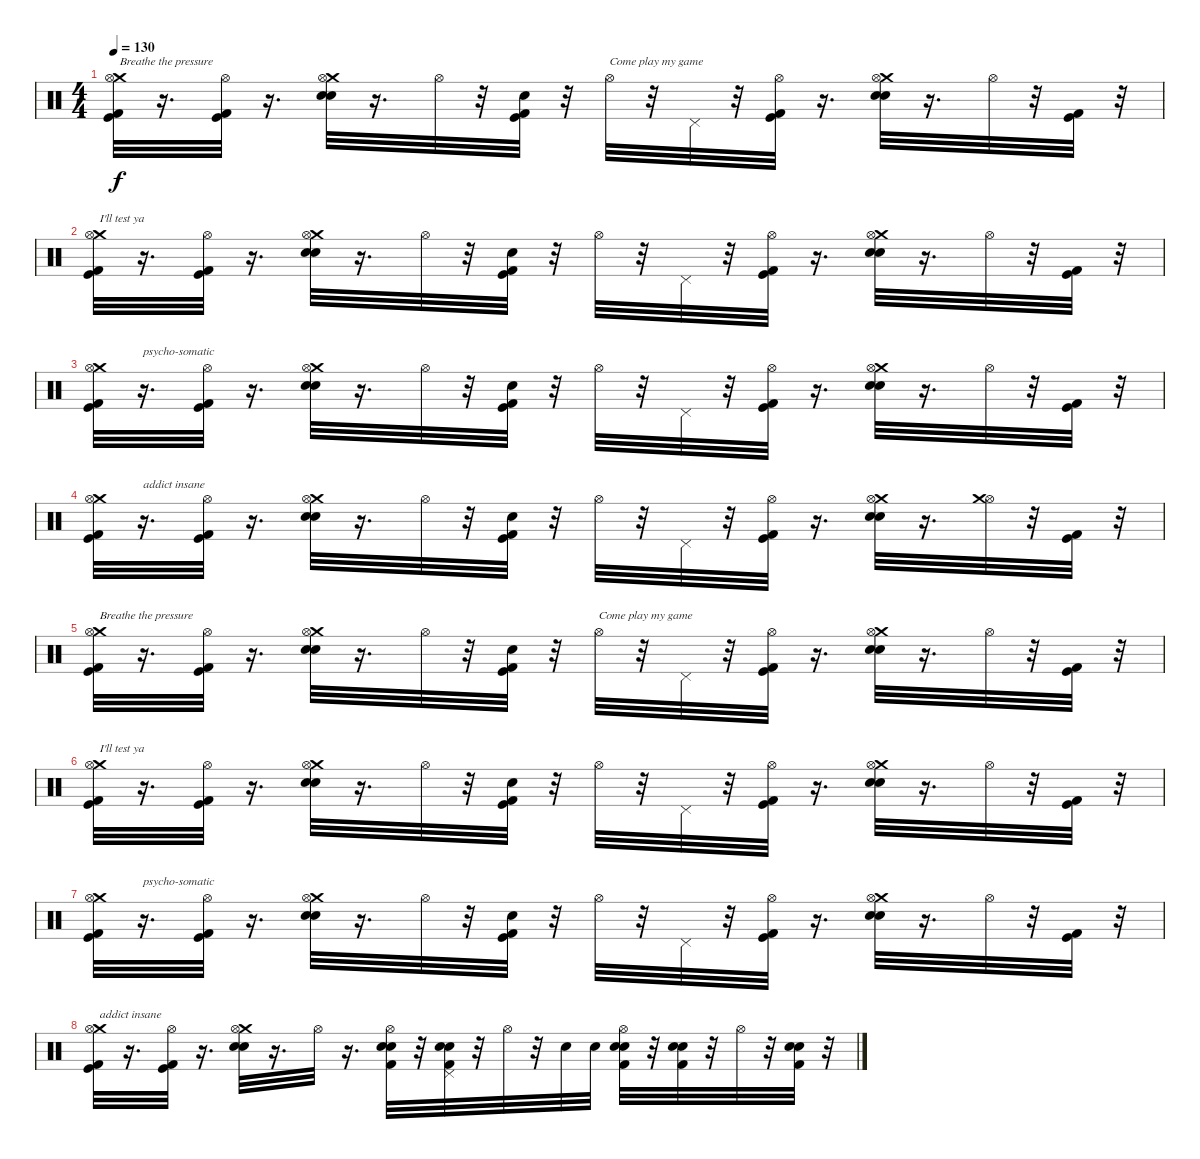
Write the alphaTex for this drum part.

\track "" {instrument percussion}
\staff {score}
\articulation defaults
\ts (4 4)
\tempo 130
\clef neutral
\ks c
("Kick (hit) 2" "Kick (hit)" "Crash medium (hit)" "Hi-Hat (open)").32{txt "Breathe the pressure" dy f} r.16{d} ("Kick (hit) 2" "Kick (hit)" "Hi-Hat (open)").32 r.16{d} ("Snare (hit) 2" "Electric Snare (hit)" "Crash medium (hit)" "Hi-Hat (open)").32 r.16{d} "Hi-Hat (open)".32 r.32 ("Kick (hit) 2" "Kick (hit)" "Electric Snare (hit)").32 r.32 "Hi-Hat (open)".32{txt "Come play my game"} r.32 "Pedal Hi-Hat (hit)".32 r.32 ("Kick (hit) 2" "Kick (hit)" "Hi-Hat (open)").32 r.16{d} ("Snare (hit) 2" "Electric Snare (hit)" "Crash medium (hit)" "Hi-Hat (open)").32 r.16{d} "Hi-Hat (open)".32 r.32 ("Kick (hit) 2" "Kick (hit)").32 r.32 |
("Kick (hit) 2" "Kick (hit)" "Crash medium (hit)" "Hi-Hat (open)").32{txt "I'll test ya"} r.16{d} ("Kick (hit) 2" "Kick (hit)" "Hi-Hat (open)").32 r.16{d} ("Snare (hit) 2" "Electric Snare (hit)" "Crash medium (hit)" "Hi-Hat (open)").32 r.16{d} "Hi-Hat (open)".32 r.32 ("Kick (hit) 2" "Kick (hit)" "Electric Snare (hit)").32 r.32 "Hi-Hat (open)".32 r.32 "Pedal Hi-Hat (hit)".32 r.32 ("Kick (hit) 2" "Kick (hit)" "Hi-Hat (open)").32 r.16{d} ("Snare (hit) 2" "Electric Snare (hit)" "Crash medium (hit)" "Hi-Hat (open)").32 r.16{d} "Hi-Hat (open)".32 r.32 ("Kick (hit) 2" "Kick (hit)").32 r.32 |
("Kick (hit) 2" "Kick (hit)" "Crash medium (hit)" "Hi-Hat (open)").32 r.16{d txt "psycho-somatic"} ("Kick (hit) 2" "Kick (hit)" "Hi-Hat (open)").32 r.16{d} ("Snare (hit) 2" "Electric Snare (hit)" "Crash medium (hit)" "Hi-Hat (open)").32 r.16{d} "Hi-Hat (open)".32 r.32 ("Kick (hit) 2" "Kick (hit)" "Electric Snare (hit)").32 r.32 "Hi-Hat (open)".32 r.32 "Pedal Hi-Hat (hit)".32 r.32 ("Kick (hit) 2" "Kick (hit)" "Hi-Hat (open)").32 r.16{d} ("Snare (hit) 2" "Electric Snare (hit)" "Crash medium (hit)" "Hi-Hat (open)").32 r.16{d} "Hi-Hat (open)".32 r.32 ("Kick (hit) 2" "Kick (hit)").32 r.32 |
("Kick (hit) 2" "Kick (hit)" "Crash medium (hit)" "Hi-Hat (open)").32 r.16{d txt "addict insane"} ("Kick (hit) 2" "Kick (hit)" "Hi-Hat (open)").32 r.16{d} ("Snare (hit) 2" "Electric Snare (hit)" "Crash medium (hit)" "Hi-Hat (open)").32 r.16{d} "Hi-Hat (open)".32 r.32 ("Kick (hit) 2" "Kick (hit)" "Electric Snare (hit)").32 r.32 "Hi-Hat (open)".32 r.32 "Pedal Hi-Hat (hit)".32 r.32 ("Kick (hit) 2" "Kick (hit)" "Hi-Hat (open)").32 r.16{d} ("Snare (hit) 2" "Electric Snare (hit)" "Crash medium (hit)" "Hi-Hat (open)").32 r.16{d} ("Hi-Hat (open)" "Crash medium (hit)").32 r.32 ("Kick (hit) 2" "Kick (hit)").32 r.32 |
("Kick (hit) 2" "Kick (hit)" "Crash medium (hit)" "Hi-Hat (open)").32{txt "Breathe the pressure"} r.16{d} ("Kick (hit) 2" "Kick (hit)" "Hi-Hat (open)").32 r.16{d} ("Snare (hit) 2" "Electric Snare (hit)" "Crash medium (hit)" "Hi-Hat (open)").32 r.16{d} "Hi-Hat (open)".32 r.32 ("Kick (hit) 2" "Kick (hit)" "Electric Snare (hit)").32 r.32 "Hi-Hat (open)".32{txt "Come play my game"} r.32 "Pedal Hi-Hat (hit)".32 r.32 ("Kick (hit) 2" "Kick (hit)" "Hi-Hat (open)").32 r.16{d} ("Snare (hit) 2" "Electric Snare (hit)" "Crash medium (hit)" "Hi-Hat (open)").32 r.16{d} "Hi-Hat (open)".32 r.32 ("Kick (hit) 2" "Kick (hit)").32 r.32 |
("Kick (hit) 2" "Kick (hit)" "Crash medium (hit)" "Hi-Hat (open)").32{txt "I'll test ya"} r.16{d} ("Kick (hit) 2" "Kick (hit)" "Hi-Hat (open)").32 r.16{d} ("Snare (hit) 2" "Electric Snare (hit)" "Crash medium (hit)" "Hi-Hat (open)").32 r.16{d} "Hi-Hat (open)".32 r.32 ("Kick (hit) 2" "Kick (hit)" "Electric Snare (hit)").32 r.32 "Hi-Hat (open)".32 r.32 "Pedal Hi-Hat (hit)".32 r.32 ("Kick (hit) 2" "Kick (hit)" "Hi-Hat (open)").32 r.16{d} ("Snare (hit) 2" "Electric Snare (hit)" "Crash medium (hit)" "Hi-Hat (open)").32 r.16{d} "Hi-Hat (open)".32 r.32 ("Kick (hit) 2" "Kick (hit)").32 r.32 |
("Kick (hit) 2" "Kick (hit)" "Crash medium (hit)" "Hi-Hat (open)").32 r.16{d txt "psycho-somatic"} ("Kick (hit) 2" "Kick (hit)" "Hi-Hat (open)").32 r.16{d} ("Snare (hit) 2" "Electric Snare (hit)" "Crash medium (hit)" "Hi-Hat (open)").32 r.16{d} "Hi-Hat (open)".32 r.32 ("Kick (hit) 2" "Kick (hit)" "Electric Snare (hit)").32 r.32 "Hi-Hat (open)".32 r.32 "Pedal Hi-Hat (hit)".32 r.32 ("Kick (hit) 2" "Kick (hit)" "Hi-Hat (open)").32 r.16{d} ("Snare (hit) 2" "Electric Snare (hit)" "Crash medium (hit)" "Hi-Hat (open)").32 r.16{d} "Hi-Hat (open)".32 r.32 ("Kick (hit) 2" "Kick (hit)").32 r.32 |
("Kick (hit) 2" "Kick (hit)" "Crash medium (hit)" "Hi-Hat (open)").32{txt "addict insane"} r.16{d} ("Kick (hit) 2" "Kick (hit)" "Hi-Hat (open)").32 r.16{d} ("Snare (hit) 2" "Electric Snare (hit)" "Crash medium (hit)" "Hi-Hat (open)").32 r.16{d} "Hi-Hat (open)".32 r.16{d} ("Hi-Hat (open)" "Electric Snare (hit)" "Snare (hit) 2" "Kick (hit) 2").32 r.32 ("Electric Snare (hit)" "Snare (hit) 2" "Kick (hit) 2" "Pedal Hi-Hat (hit)").32 r.32 "Hi-Hat (open)".32 r.32 "Electric Snare (hit)".32 "Electric Snare (hit)".32 ("Hi-Hat (open)" "Snare (hit) 2" "Electric Snare (hit)" "Kick (hit) 2").32 r.32 ("Electric Snare (hit)" "Snare (hit) 2" "Kick (hit) 2").32 r.32 "Hi-Hat (open)".32 r.32 ("Electric Snare (hit)" "Snare (hit) 2" "Kick (hit) 2").32 r.32
